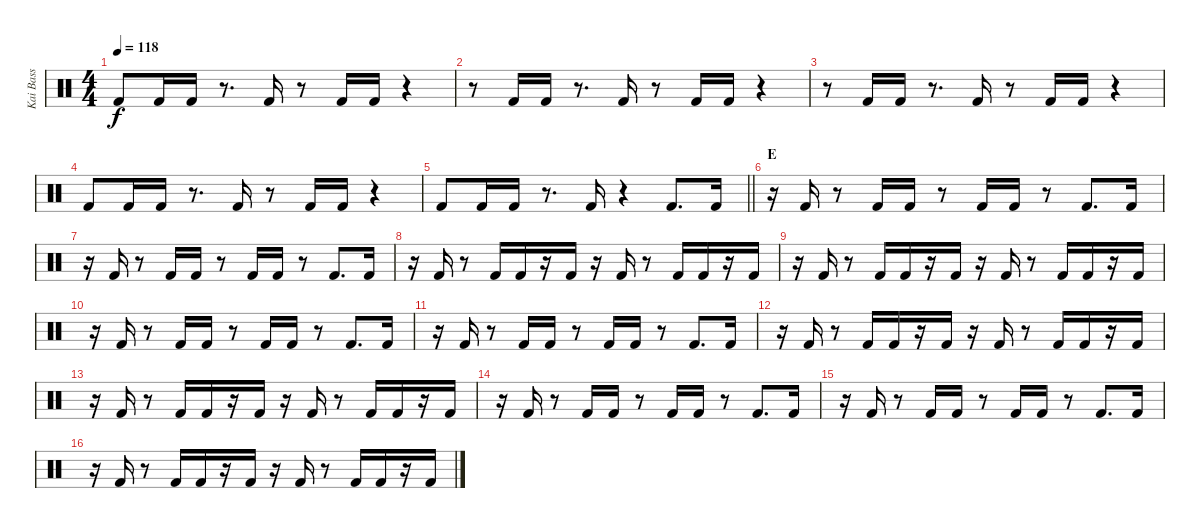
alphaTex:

\track ("Kai Bass" "Kai Bass") {instrument percussion}
\staff {score}
\articulation defaults
\ts (4 4)
\tempo 118
\clef neutral
\ks c "Kick (hit) 2".8{dy f} "Kick (hit) 2".16 "Kick (hit) 2".16
r.8{d} "Kick (hit) 2".16 r.8 "Kick (hit) 2".16 "Kick (hit) 2".16 r.4 |
r.8 "Kick (hit) 2".16 "Kick (hit) 2".16 r.8{d} "Kick (hit) 2".16 r.8 "Kick (hit) 2".16 "Kick (hit) 2".16 r.4 |
r.8 "Kick (hit) 2".16 "Kick (hit) 2".16 r.8{d} "Kick (hit) 2".16 r.8 "Kick (hit) 2".16 "Kick (hit) 2".16 r.4 |
"Kick (hit) 2".8 "Kick (hit) 2".16 "Kick (hit) 2".16 r.8{d} "Kick (hit) 2".16 r.8 "Kick (hit) 2".16 "Kick (hit) 2".16 r.4 |
\barLineRight lightlight "Kick (hit) 2".8 "Kick (hit) 2".16 "Kick (hit) 2".16
r.8{d} "Kick (hit) 2".16 r.4 "Kick (hit) 2".8{d} "Kick (hit) 2".16 |
\section ("" "E")
r.16 "Kick (hit) 2".16 r.8 "Kick (hit) 2".16 "Kick (hit) 2".16 r.8 "Kick (hit) 2".16 "Kick (hit) 2".16 r.8 "Kick (hit) 2".8{d} "Kick (hit) 2".16 |
r.16 "Kick (hit) 2".16 r.8 "Kick (hit) 2".16 "Kick (hit) 2".16 r.8 "Kick (hit) 2".16 "Kick (hit) 2".16 r.8 "Kick (hit) 2".8{d} "Kick (hit) 2".16 |
r.16 "Kick (hit) 2".16 r.8 "Kick (hit) 2".16 "Kick (hit) 2".16 r.16 "Kick (hit) 2".16 r.16 "Kick (hit) 2".16 r.8 "Kick (hit) 2".16 "Kick (hit) 2".16 r.16 "Kick (hit) 2".16 |
r.16 "Kick (hit) 2".16 r.8 "Kick (hit) 2".16 "Kick (hit) 2".16 r.16 "Kick (hit) 2".16 r.16 "Kick (hit) 2".16 r.8 "Kick (hit) 2".16 "Kick (hit) 2".16 r.16 "Kick (hit) 2".16 |
r.16 "Kick (hit) 2".16 r.8 "Kick (hit) 2".16 "Kick (hit) 2".16 r.8 "Kick (hit) 2".16 "Kick (hit) 2".16 r.8 "Kick (hit) 2".8{d} "Kick (hit) 2".16 |
r.16 "Kick (hit) 2".16 r.8 "Kick (hit) 2".16 "Kick (hit) 2".16 r.8 "Kick (hit) 2".16 "Kick (hit) 2".16 r.8 "Kick (hit) 2".8{d} "Kick (hit) 2".16 |
r.16 "Kick (hit) 2".16 r.8 "Kick (hit) 2".16 "Kick (hit) 2".16 r.16 "Kick (hit) 2".16 r.16 "Kick (hit) 2".16 r.8 "Kick (hit) 2".16 "Kick (hit) 2".16 r.16 "Kick (hit) 2".16 |
r.16 "Kick (hit) 2".16 r.8 "Kick (hit) 2".16 "Kick (hit) 2".16 r.16 "Kick (hit) 2".16 r.16 "Kick (hit) 2".16 r.8 "Kick (hit) 2".16 "Kick (hit) 2".16 r.16 "Kick (hit) 2".16 |
r.16 "Kick (hit) 2".16 r.8 "Kick (hit) 2".16 "Kick (hit) 2".16 r.8 "Kick (hit) 2".16 "Kick (hit) 2".16 r.8 "Kick (hit) 2".8{d} "Kick (hit) 2".16 |
r.16 "Kick (hit) 2".16 r.8 "Kick (hit) 2".16 "Kick (hit) 2".16 r.8 "Kick (hit) 2".16 "Kick (hit) 2".16 r.8 "Kick (hit) 2".8{d} "Kick (hit) 2".16 |
r.16 "Kick (hit) 2".16 r.8 "Kick (hit) 2".16 "Kick (hit) 2".16 r.16 "Kick (hit) 2".16 r.16 "Kick (hit) 2".16 r.8 "Kick (hit) 2".16 "Kick (hit) 2".16 r.16 "Kick (hit) 2".16
